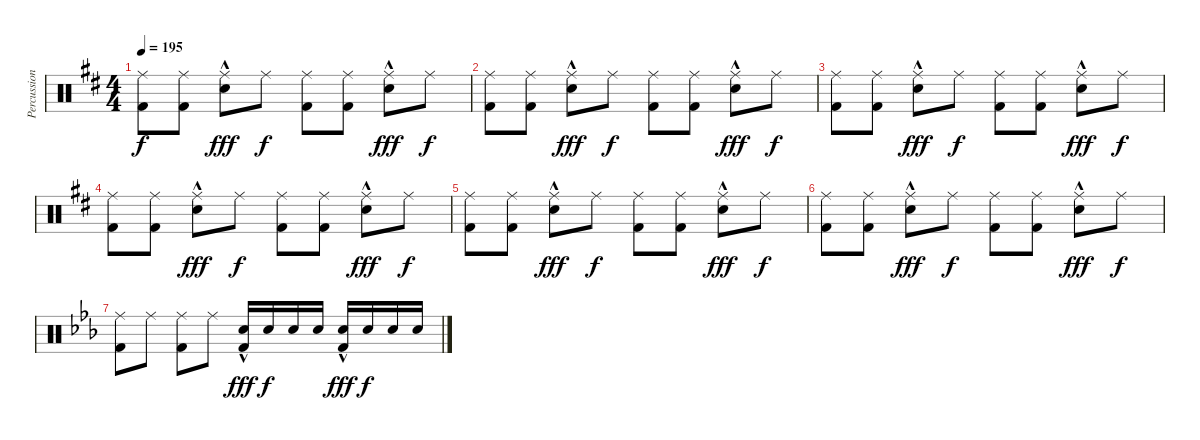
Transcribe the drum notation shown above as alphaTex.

\track ("Percussion" "Percussion") {instrument percussion}
\staff {score}
\articulation defaults
\ts (4 4)
\tempo 195
\clef neutral
\ks d
("Ride (middle)" "Kick (hit) 2").8{dy f} ("Ride (middle)" "Kick (hit) 2").8 ("Ride (middle)" "Electric Snare (hit)"{hac}).8{dy fff} "Ride (middle)".8{dy f} ("Ride (middle)" "Kick (hit) 2").8 ("Ride (middle)" "Kick (hit) 2").8 ("Ride (middle)" "Electric Snare (hit)"{hac}).8{dy fff} "Ride (middle)".8{dy f} |
("Ride (middle)" "Kick (hit) 2").8 ("Ride (middle)" "Kick (hit) 2").8 ("Ride (middle)" "Electric Snare (hit)"{hac}).8{dy fff} "Ride (middle)".8{dy f} ("Ride (middle)" "Kick (hit) 2").8 ("Ride (middle)" "Kick (hit) 2").8 ("Ride (middle)" "Electric Snare (hit)"{hac}).8{dy fff} "Ride (middle)".8{dy f} |
("Ride (middle)" "Kick (hit) 2").8 ("Ride (middle)" "Kick (hit) 2").8 ("Ride (middle)" "Electric Snare (hit)"{hac}).8{dy fff} "Ride (middle)".8{dy f} ("Ride (middle)" "Kick (hit) 2").8 ("Ride (middle)" "Kick (hit) 2").8 ("Ride (middle)" "Electric Snare (hit)"{hac}).8{dy fff} "Ride (middle)".8{dy f} |
("Ride (middle)" "Kick (hit) 2").8 ("Ride (middle)" "Kick (hit) 2").8 ("Ride (middle)" "Electric Snare (hit)"{hac}).8{dy fff} "Ride (middle)".8{dy f} ("Ride (middle)" "Kick (hit) 2").8 ("Ride (middle)" "Kick (hit) 2").8 ("Ride (middle)" "Electric Snare (hit)"{hac}).8{dy fff} "Ride (middle)".8{dy f} |
("Ride (middle)" "Kick (hit) 2").8 ("Ride (middle)" "Kick (hit) 2").8 ("Ride (middle)" "Electric Snare (hit)"{hac}).8{dy fff} "Ride (middle)".8{dy f} ("Ride (middle)" "Kick (hit) 2").8 ("Ride (middle)" "Kick (hit) 2").8 ("Ride (middle)" "Electric Snare (hit)"{hac}).8{dy fff} "Ride (middle)".8{dy f} |
("Ride (middle)" "Kick (hit) 2").8 ("Ride (middle)" "Kick (hit) 2").8 ("Ride (middle)" "Electric Snare (hit)"{hac}).8{dy fff} "Ride (middle)".8{dy f} ("Ride (middle)" "Kick (hit) 2").8 ("Ride (middle)" "Kick (hit) 2").8 ("Ride (middle)" "Electric Snare (hit)"{hac}).8{dy fff} "Ride (middle)".8{dy f} |
\ks eb
("Ride (middle)" "Kick (hit) 2").8 "Ride (middle)".8 ("Ride (middle)" "Kick (hit) 2").8 "Ride (middle)".8 ("Electric Snare (hit)"{hac} "Kick (hit) 2").16{dy fff} "Electric Snare (hit)".16{dy f} "Electric Snare (hit)".16 "Electric Snare (hit)".16 ("Electric Snare (hit)"{hac} "Kick (hit) 2").16{dy fff} "Electric Snare (hit)".16{dy f} "Electric Snare (hit)".16 "Electric Snare (hit)".16
